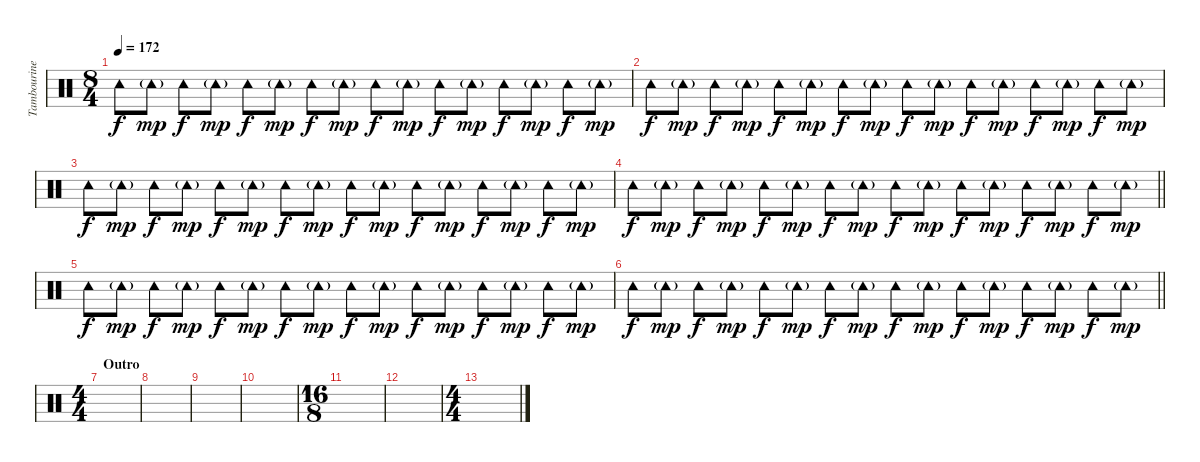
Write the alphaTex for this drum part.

\track ("Tambourine" "Tambourine") {instrument percussion}
\staff {score}
\articulation defaults
\ts (8 4)
\tempo 172
\clef neutral
\ks c "Tambourine (hit)".8{dy f} "Tambourine (hit)"{g}.8{dy mp} "Tambourine (hit)".8{dy f} "Tambourine (hit)"{g}.8{dy mp} "Tambourine (hit)".8{dy f} "Tambourine (hit)"{g}.8{dy mp} "Tambourine (hit)".8{dy f} "Tambourine (hit)"{g}.8{dy mp} "Tambourine (hit)".8{dy f} "Tambourine (hit)"{g}.8{dy mp} "Tambourine (hit)".8{dy f} "Tambourine (hit)"{g}.8{dy mp} "Tambourine (hit)".8{dy f} "Tambourine (hit)"{g}.8{dy mp} "Tambourine (hit)".8{dy f} "Tambourine (hit)"{g}.8{dy mp}
|
"Tambourine (hit)".8{dy f} "Tambourine (hit)"{g}.8{dy mp} "Tambourine (hit)".8{dy f} "Tambourine (hit)"{g}.8{dy mp} "Tambourine (hit)".8{dy f} "Tambourine (hit)"{g}.8{dy mp} "Tambourine (hit)".8{dy f} "Tambourine (hit)"{g}.8{dy mp} "Tambourine (hit)".8{dy f} "Tambourine (hit)"{g}.8{dy mp} "Tambourine (hit)".8{dy f} "Tambourine (hit)"{g}.8{dy mp} "Tambourine (hit)".8{dy f} "Tambourine (hit)"{g}.8{dy mp} "Tambourine (hit)".8{dy f} "Tambourine (hit)"{g}.8{dy mp} |
"Tambourine (hit)".8{dy f} "Tambourine (hit)"{g}.8{dy mp} "Tambourine (hit)".8{dy f} "Tambourine (hit)"{g}.8{dy mp} "Tambourine (hit)".8{dy f} "Tambourine (hit)"{g}.8{dy mp} "Tambourine (hit)".8{dy f} "Tambourine (hit)"{g}.8{dy mp} "Tambourine (hit)".8{dy f} "Tambourine (hit)"{g}.8{dy mp} "Tambourine (hit)".8{dy f} "Tambourine (hit)"{g}.8{dy mp} "Tambourine (hit)".8{dy f} "Tambourine (hit)"{g}.8{dy mp} "Tambourine (hit)".8{dy f} "Tambourine (hit)"{g}.8{dy mp} |
\barLineRight lightlight "Tambourine (hit)".8{dy f} "Tambourine (hit)"{g}.8{dy mp} "Tambourine (hit)".8{dy f} "Tambourine (hit)"{g}.8{dy mp} "Tambourine (hit)".8{dy f} "Tambourine (hit)"{g}.8{dy mp} "Tambourine (hit)".8{dy f} "Tambourine (hit)"{g}.8{dy mp} "Tambourine (hit)".8{dy f} "Tambourine (hit)"{g}.8{dy mp} "Tambourine (hit)".8{dy f} "Tambourine (hit)"{g}.8{dy mp} "Tambourine (hit)".8{dy f} "Tambourine (hit)"{g}.8{dy mp} "Tambourine (hit)".8{dy f} "Tambourine (hit)"{g}.8{dy mp}
|
"Tambourine (hit)".8{dy f} "Tambourine (hit)"{g}.8{dy mp} "Tambourine (hit)".8{dy f} "Tambourine (hit)"{g}.8{dy mp} "Tambourine (hit)".8{dy f} "Tambourine (hit)"{g}.8{dy mp} "Tambourine (hit)".8{dy f} "Tambourine (hit)"{g}.8{dy mp} "Tambourine (hit)".8{dy f} "Tambourine (hit)"{g}.8{dy mp} "Tambourine (hit)".8{dy f} "Tambourine (hit)"{g}.8{dy mp} "Tambourine (hit)".8{dy f} "Tambourine (hit)"{g}.8{dy mp} "Tambourine (hit)".8{dy f} "Tambourine (hit)"{g}.8{dy mp} |
\barLineRight lightlight "Tambourine (hit)".8{dy f} "Tambourine (hit)"{g}.8{dy mp} "Tambourine (hit)".8{dy f} "Tambourine (hit)"{g}.8{dy mp} "Tambourine (hit)".8{dy f} "Tambourine (hit)"{g}.8{dy mp} "Tambourine (hit)".8{dy f} "Tambourine (hit)"{g}.8{dy mp} "Tambourine (hit)".8{dy f} "Tambourine (hit)"{g}.8{dy mp} "Tambourine (hit)".8{dy f} "Tambourine (hit)"{g}.8{dy mp} "Tambourine (hit)".8{dy f} "Tambourine (hit)"{g}.8{dy mp} "Tambourine (hit)".8{dy f} "Tambourine (hit)"{g}.8{dy mp}
|
\ts (4 4)
\section ("" "Outro")
|
|
|
|
\ts (16 8)
|
|
\ts (4 4)
